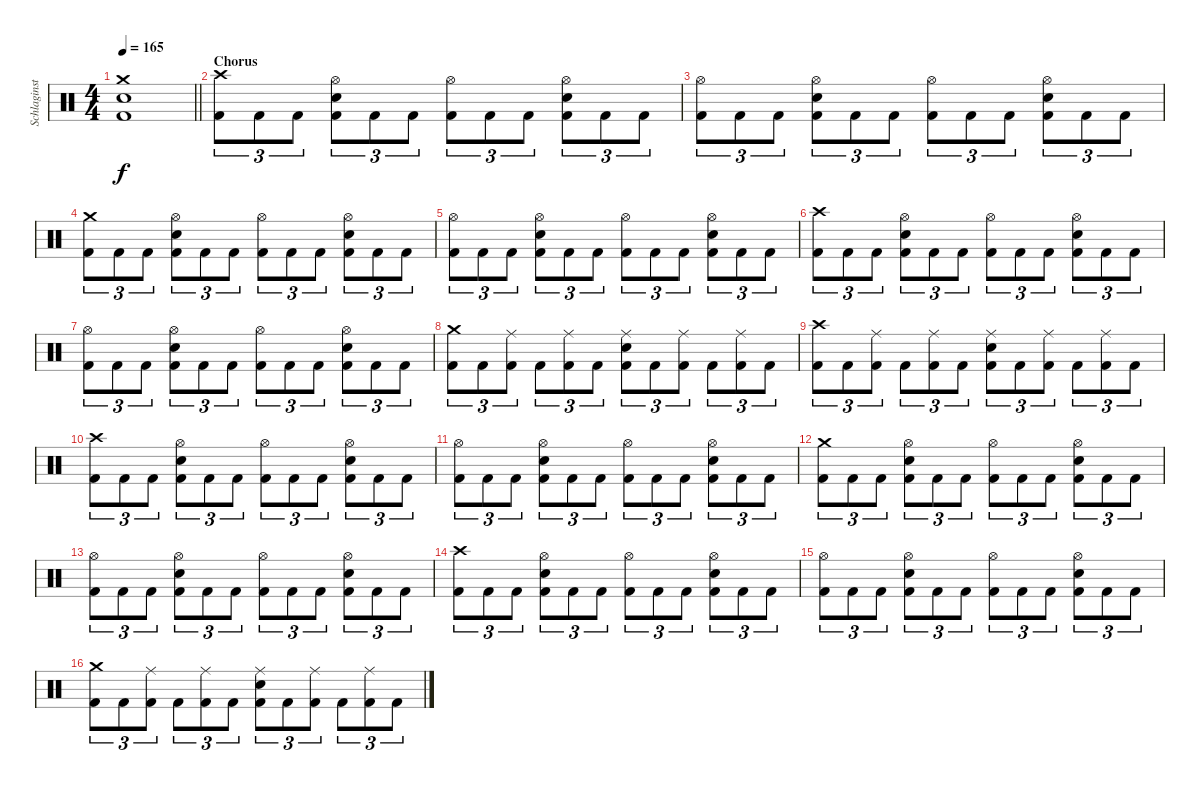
\track ("Schlaginstrumente - Auswahl" "Schlaginst") {instrument percussion}
\staff {score}
\articulation defaults
\ts (4 4)
\tempo 165
\clef neutral
\barLineRight lightlight
\ks c
("Crash medium (hit)" "Electric Snare (hit)" "Kick (hit) 2").1{dy f} |
\section ("" "Chorus")
("Crash high (hit)" "Kick (hit) 2").8{tu (3 2)} "Kick (hit) 2".8{tu (3 2)} "Kick (hit) 2".8{tu (3 2)} ("Hi-Hat (open)" "Electric Snare (hit)" "Kick (hit) 2").8{tu (3 2)} "Kick (hit) 2".8{tu (3 2)} "Kick (hit) 2".8{tu (3 2)} ("Hi-Hat (open)" "Kick (hit) 2").8{tu (3 2)} "Kick (hit) 2".8{tu (3 2)} "Kick (hit) 2".8{tu (3 2)} ("Hi-Hat (open)" "Electric Snare (hit)" "Kick (hit) 2").8{tu (3 2)} "Kick (hit) 2".8{tu (3 2)} "Kick (hit) 2".8{tu (3 2)} |
("Hi-Hat (open)" "Kick (hit) 2").8{tu (3 2)} "Kick (hit) 2".8{tu (3 2)} "Kick (hit) 2".8{tu (3 2)} ("Hi-Hat (open)" "Electric Snare (hit)" "Kick (hit) 2").8{tu (3 2)} "Kick (hit) 2".8{tu (3 2)} "Kick (hit) 2".8{tu (3 2)} ("Hi-Hat (open)" "Kick (hit) 2").8{tu (3 2)} "Kick (hit) 2".8{tu (3 2)} "Kick (hit) 2".8{tu (3 2)} ("Hi-Hat (open)" "Electric Snare (hit)" "Kick (hit) 2").8{tu (3 2)} "Kick (hit) 2".8{tu (3 2)} "Kick (hit) 2".8{tu (3 2)} |
("Crash medium (hit)" "Kick (hit) 2").8{tu (3 2)} "Kick (hit) 2".8{tu (3 2)} "Kick (hit) 2".8{tu (3 2)} ("Hi-Hat (open)" "Electric Snare (hit)" "Kick (hit) 2").8{tu (3 2)} "Kick (hit) 2".8{tu (3 2)} "Kick (hit) 2".8{tu (3 2)} ("Hi-Hat (open)" "Kick (hit) 2").8{tu (3 2)} "Kick (hit) 2".8{tu (3 2)} "Kick (hit) 2".8{tu (3 2)} ("Hi-Hat (open)" "Electric Snare (hit)" "Kick (hit) 2").8{tu (3 2)} "Kick (hit) 2".8{tu (3 2)} "Kick (hit) 2".8{tu (3 2)} |
("Hi-Hat (open)" "Kick (hit) 2").8{tu (3 2)} "Kick (hit) 2".8{tu (3 2)} "Kick (hit) 2".8{tu (3 2)} ("Hi-Hat (open)" "Electric Snare (hit)" "Kick (hit) 2").8{tu (3 2)} "Kick (hit) 2".8{tu (3 2)} "Kick (hit) 2".8{tu (3 2)} ("Hi-Hat (open)" "Kick (hit) 2").8{tu (3 2)} "Kick (hit) 2".8{tu (3 2)} "Kick (hit) 2".8{tu (3 2)} ("Hi-Hat (open)" "Electric Snare (hit)" "Kick (hit) 2").8{tu (3 2)} "Kick (hit) 2".8{tu (3 2)} "Kick (hit) 2".8{tu (3 2)} |
("Crash high (hit)" "Kick (hit) 2").8{tu (3 2)} "Kick (hit) 2".8{tu (3 2)} "Kick (hit) 2".8{tu (3 2)} ("Hi-Hat (open)" "Electric Snare (hit)" "Kick (hit) 2").8{tu (3 2)} "Kick (hit) 2".8{tu (3 2)} "Kick (hit) 2".8{tu (3 2)} ("Hi-Hat (open)" "Kick (hit) 2").8{tu (3 2)} "Kick (hit) 2".8{tu (3 2)} "Kick (hit) 2".8{tu (3 2)} ("Hi-Hat (open)" "Electric Snare (hit)" "Kick (hit) 2").8{tu (3 2)} "Kick (hit) 2".8{tu (3 2)} "Kick (hit) 2".8{tu (3 2)} |
("Hi-Hat (open)" "Kick (hit) 2").8{tu (3 2)} "Kick (hit) 2".8{tu (3 2)} "Kick (hit) 2".8{tu (3 2)} ("Hi-Hat (open)" "Electric Snare (hit)" "Kick (hit) 2").8{tu (3 2)} "Kick (hit) 2".8{tu (3 2)} "Kick (hit) 2".8{tu (3 2)} ("Hi-Hat (open)" "Kick (hit) 2").8{tu (3 2)} "Kick (hit) 2".8{tu (3 2)} "Kick (hit) 2".8{tu (3 2)} ("Hi-Hat (open)" "Electric Snare (hit)" "Kick (hit) 2").8{tu (3 2)} "Kick (hit) 2".8{tu (3 2)} "Kick (hit) 2".8{tu (3 2)} |
("Crash medium (hit)" "Kick (hit) 2").8{tu (3 2)} "Kick (hit) 2".8{tu (3 2)} ("Ride (middle)" "Kick (hit) 2").8{tu (3 2)} "Kick (hit) 2".8{tu (3 2)} ("Ride (middle)" "Kick (hit) 2").8{tu (3 2)} "Kick (hit) 2".8{tu (3 2)} ("Ride (middle)" "Electric Snare (hit)" "Kick (hit) 2").8{tu (3 2)} "Kick (hit) 2".8{tu (3 2)} ("Ride (middle)" "Kick (hit) 2").8{tu (3 2)} "Kick (hit) 2".8{tu (3 2)} ("Ride (middle)" "Kick (hit) 2").8{tu (3 2)} "Kick (hit) 2".8{tu (3 2)} |
("Crash high (hit)" "Kick (hit) 2").8{tu (3 2)} "Kick (hit) 2".8{tu (3 2)} ("Ride (middle)" "Kick (hit) 2").8{tu (3 2)} "Kick (hit) 2".8{tu (3 2)} ("Ride (middle)" "Kick (hit) 2").8{tu (3 2)} "Kick (hit) 2".8{tu (3 2)} ("Ride (middle)" "Electric Snare (hit)" "Kick (hit) 2").8{tu (3 2)} "Kick (hit) 2".8{tu (3 2)} ("Ride (middle)" "Kick (hit) 2").8{tu (3 2)} "Kick (hit) 2".8{tu (3 2)} ("Ride (middle)" "Kick (hit) 2").8{tu (3 2)} "Kick (hit) 2".8{tu (3 2)} |
("Crash high (hit)" "Kick (hit) 2").8{tu (3 2)} "Kick (hit) 2".8{tu (3 2)} "Kick (hit) 2".8{tu (3 2)} ("Hi-Hat (open)" "Electric Snare (hit)" "Kick (hit) 2").8{tu (3 2)} "Kick (hit) 2".8{tu (3 2)} "Kick (hit) 2".8{tu (3 2)} ("Hi-Hat (open)" "Kick (hit) 2").8{tu (3 2)} "Kick (hit) 2".8{tu (3 2)} "Kick (hit) 2".8{tu (3 2)} ("Hi-Hat (open)" "Electric Snare (hit)" "Kick (hit) 2").8{tu (3 2)} "Kick (hit) 2".8{tu (3 2)} "Kick (hit) 2".8{tu (3 2)} |
("Hi-Hat (open)" "Kick (hit) 2").8{tu (3 2)} "Kick (hit) 2".8{tu (3 2)} "Kick (hit) 2".8{tu (3 2)} ("Hi-Hat (open)" "Electric Snare (hit)" "Kick (hit) 2").8{tu (3 2)} "Kick (hit) 2".8{tu (3 2)} "Kick (hit) 2".8{tu (3 2)} ("Hi-Hat (open)" "Kick (hit) 2").8{tu (3 2)} "Kick (hit) 2".8{tu (3 2)} "Kick (hit) 2".8{tu (3 2)} ("Hi-Hat (open)" "Electric Snare (hit)" "Kick (hit) 2").8{tu (3 2)} "Kick (hit) 2".8{tu (3 2)} "Kick (hit) 2".8{tu (3 2)} |
("Crash medium (hit)" "Kick (hit) 2").8{tu (3 2)} "Kick (hit) 2".8{tu (3 2)} "Kick (hit) 2".8{tu (3 2)} ("Hi-Hat (open)" "Electric Snare (hit)" "Kick (hit) 2").8{tu (3 2)} "Kick (hit) 2".8{tu (3 2)} "Kick (hit) 2".8{tu (3 2)} ("Hi-Hat (open)" "Kick (hit) 2").8{tu (3 2)} "Kick (hit) 2".8{tu (3 2)} "Kick (hit) 2".8{tu (3 2)} ("Hi-Hat (open)" "Electric Snare (hit)" "Kick (hit) 2").8{tu (3 2)} "Kick (hit) 2".8{tu (3 2)} "Kick (hit) 2".8{tu (3 2)} |
("Hi-Hat (open)" "Kick (hit) 2").8{tu (3 2)} "Kick (hit) 2".8{tu (3 2)} "Kick (hit) 2".8{tu (3 2)} ("Hi-Hat (open)" "Electric Snare (hit)" "Kick (hit) 2").8{tu (3 2)} "Kick (hit) 2".8{tu (3 2)} "Kick (hit) 2".8{tu (3 2)} ("Hi-Hat (open)" "Kick (hit) 2").8{tu (3 2)} "Kick (hit) 2".8{tu (3 2)} "Kick (hit) 2".8{tu (3 2)} ("Hi-Hat (open)" "Electric Snare (hit)" "Kick (hit) 2").8{tu (3 2)} "Kick (hit) 2".8{tu (3 2)} "Kick (hit) 2".8{tu (3 2)} |
("Crash high (hit)" "Kick (hit) 2").8{tu (3 2)} "Kick (hit) 2".8{tu (3 2)} "Kick (hit) 2".8{tu (3 2)} ("Hi-Hat (open)" "Electric Snare (hit)" "Kick (hit) 2").8{tu (3 2)} "Kick (hit) 2".8{tu (3 2)} "Kick (hit) 2".8{tu (3 2)} ("Hi-Hat (open)" "Kick (hit) 2").8{tu (3 2)} "Kick (hit) 2".8{tu (3 2)} "Kick (hit) 2".8{tu (3 2)} ("Hi-Hat (open)" "Electric Snare (hit)" "Kick (hit) 2").8{tu (3 2)} "Kick (hit) 2".8{tu (3 2)} "Kick (hit) 2".8{tu (3 2)} |
("Hi-Hat (open)" "Kick (hit) 2").8{tu (3 2)} "Kick (hit) 2".8{tu (3 2)} "Kick (hit) 2".8{tu (3 2)} ("Hi-Hat (open)" "Electric Snare (hit)" "Kick (hit) 2").8{tu (3 2)} "Kick (hit) 2".8{tu (3 2)} "Kick (hit) 2".8{tu (3 2)} ("Hi-Hat (open)" "Kick (hit) 2").8{tu (3 2)} "Kick (hit) 2".8{tu (3 2)} "Kick (hit) 2".8{tu (3 2)} ("Hi-Hat (open)" "Electric Snare (hit)" "Kick (hit) 2").8{tu (3 2)} "Kick (hit) 2".8{tu (3 2)} "Kick (hit) 2".8{tu (3 2)} |
("Crash medium (hit)" "Kick (hit) 2").8{tu (3 2)} "Kick (hit) 2".8{tu (3 2)} ("Ride (middle)" "Kick (hit) 2").8{tu (3 2)} "Kick (hit) 2".8{tu (3 2)} ("Ride (middle)" "Kick (hit) 2").8{tu (3 2)} "Kick (hit) 2".8{tu (3 2)} ("Ride (middle)" "Electric Snare (hit)" "Kick (hit) 2").8{tu (3 2)} "Kick (hit) 2".8{tu (3 2)} ("Ride (middle)" "Kick (hit) 2").8{tu (3 2)} "Kick (hit) 2".8{tu (3 2)} ("Ride (middle)" "Kick (hit) 2").8{tu (3 2)} "Kick (hit) 2".8{tu (3 2)}
